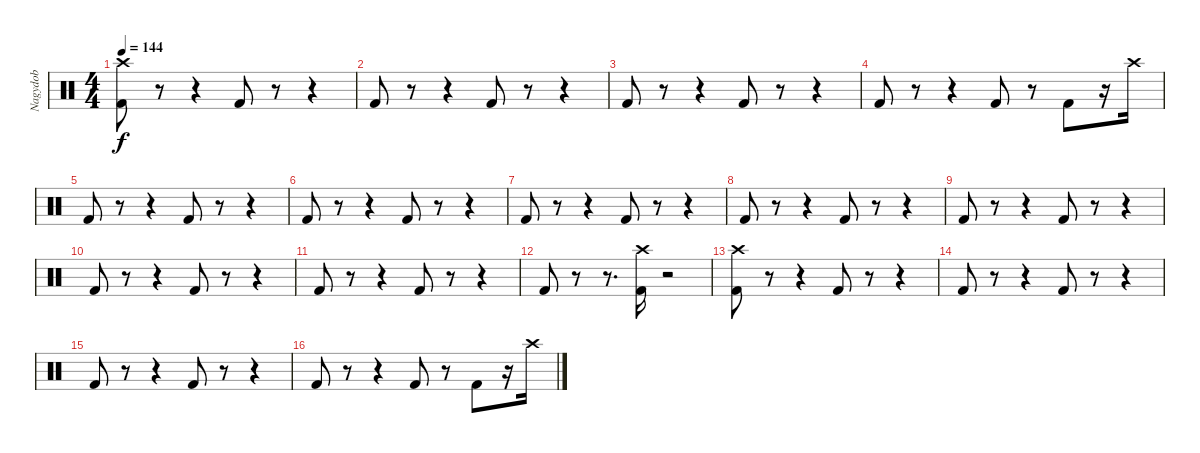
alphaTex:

\track ("Nagydob" "Nagydob") {instrument percussion}
\staff {score}
\articulation defaults
\ts (4 4)
\tempo 144
\clef neutral
\ks c
("Kick (hit) 2" "Crash high (hit)").8{dy f} r.8 r.4 "Kick (hit) 2".8 r.8 r.4 |
"Kick (hit) 2".8 r.8 r.4 "Kick (hit) 2".8 r.8 r.4 |
"Kick (hit) 2".8 r.8 r.4 "Kick (hit) 2".8 r.8 r.4 |
"Kick (hit) 2".8 r.8 r.4 "Kick (hit) 2".8 r.8 "Kick (hit) 2".8 r.16 "Crash high (hit)".16 |
"Kick (hit) 2".8 r.8 r.4 "Kick (hit) 2".8 r.8 r.4 |
"Kick (hit) 2".8 r.8 r.4 "Kick (hit) 2".8 r.8 r.4 |
"Kick (hit) 2".8 r.8 r.4 "Kick (hit) 2".8 r.8 r.4 |
"Kick (hit) 2".8 r.8 r.4 "Kick (hit) 2".8 r.8 r.4 |
"Kick (hit) 2".8 r.8 r.4 "Kick (hit) 2".8 r.8 r.4 |
"Kick (hit) 2".8 r.8 r.4 "Kick (hit) 2".8 r.8 r.4 |
"Kick (hit) 2".8 r.8 r.4 "Kick (hit) 2".8 r.8 r.4 |
"Kick (hit) 2".8 r.8 r.8{d} ("Kick (hit) 2" "Crash high (hit)").16 r.2 |
("Kick (hit) 2" "Crash high (hit)").8 r.8 r.4 "Kick (hit) 2".8 r.8 r.4 |
"Kick (hit) 2".8 r.8 r.4 "Kick (hit) 2".8 r.8 r.4 |
"Kick (hit) 2".8 r.8 r.4 "Kick (hit) 2".8 r.8 r.4 |
"Kick (hit) 2".8 r.8 r.4 "Kick (hit) 2".8 r.8 "Kick (hit) 2".8 r.16 "Crash high (hit)".16
